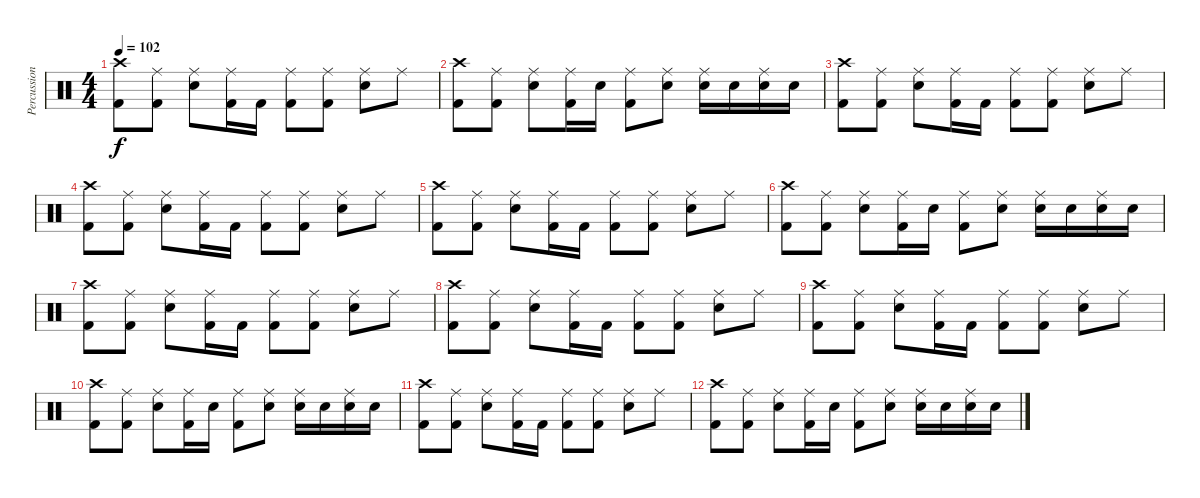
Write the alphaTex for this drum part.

\track ("Percussion" "Percussion") {instrument percussion}
\staff {score}
\articulation defaults
\ts (4 4)
\tempo 102
\clef neutral
\ks c
("Crash high (hit)" "Kick (hit) 2").8{dy f} ("Ride (middle)" "Kick (hit) 2").8 ("Ride (middle)" "Snare (hit) 2").8 ("Ride (middle)" "Kick (hit) 2").16 "Kick (hit) 2".16 ("Ride (middle)" "Kick (hit) 2").8 ("Ride (middle)" "Kick (hit) 2").8 ("Ride (middle)" "Snare (hit) 2").8 "Ride (middle)".8 |
("Crash high (hit)" "Kick (hit) 2").8 ("Ride (middle)" "Kick (hit) 2").8 ("Ride (middle)" "Snare (hit) 2").8 ("Ride (middle)" "Kick (hit) 2").16 "Snare (hit) 2".16 ("Ride (middle)" "Kick (hit) 2").8 ("Ride (middle)" "Snare (hit) 2").8 ("Ride (middle)" "Snare (hit) 2").16 "Snare (hit) 2".16 ("Ride (middle)" "Snare (hit) 2").16 "Snare (hit) 2".16 |
("Crash high (hit)" "Kick (hit) 2").8 ("Ride (middle)" "Kick (hit) 2").8 ("Ride (middle)" "Snare (hit) 2").8 ("Ride (middle)" "Kick (hit) 2").16 "Kick (hit) 2".16 ("Ride (middle)" "Kick (hit) 2").8 ("Ride (middle)" "Kick (hit) 2").8 ("Ride (middle)" "Snare (hit) 2").8 "Ride (middle)".8 |
("Crash high (hit)" "Kick (hit) 2").8 ("Ride (middle)" "Kick (hit) 2").8 ("Ride (middle)" "Snare (hit) 2").8 ("Ride (middle)" "Kick (hit) 2").16 "Kick (hit) 2".16 ("Ride (middle)" "Kick (hit) 2").8 ("Ride (middle)" "Kick (hit) 2").8 ("Ride (middle)" "Snare (hit) 2").8 "Ride (middle)".8 |
("Crash high (hit)" "Kick (hit) 2").8 ("Ride (middle)" "Kick (hit) 2").8 ("Ride (middle)" "Snare (hit) 2").8 ("Ride (middle)" "Kick (hit) 2").16 "Kick (hit) 2".16 ("Ride (middle)" "Kick (hit) 2").8 ("Ride (middle)" "Kick (hit) 2").8 ("Ride (middle)" "Snare (hit) 2").8 "Ride (middle)".8 |
("Crash high (hit)" "Kick (hit) 2").8 ("Ride (middle)" "Kick (hit) 2").8 ("Ride (middle)" "Snare (hit) 2").8 ("Ride (middle)" "Kick (hit) 2").16 "Snare (hit) 2".16 ("Ride (middle)" "Kick (hit) 2").8 ("Ride (middle)" "Snare (hit) 2").8 ("Ride (middle)" "Snare (hit) 2").16 "Snare (hit) 2".16 ("Ride (middle)" "Snare (hit) 2").16 "Snare (hit) 2".16 |
("Crash high (hit)" "Kick (hit) 2").8 ("Ride (middle)" "Kick (hit) 2").8 ("Ride (middle)" "Snare (hit) 2").8 ("Ride (middle)" "Kick (hit) 2").16 "Kick (hit) 2".16 ("Ride (middle)" "Kick (hit) 2").8 ("Ride (middle)" "Kick (hit) 2").8 ("Ride (middle)" "Snare (hit) 2").8 "Ride (middle)".8 |
("Crash high (hit)" "Kick (hit) 2").8 ("Ride (middle)" "Kick (hit) 2").8 ("Ride (middle)" "Snare (hit) 2").8 ("Ride (middle)" "Kick (hit) 2").16 "Kick (hit) 2".16 ("Ride (middle)" "Kick (hit) 2").8 ("Ride (middle)" "Kick (hit) 2").8 ("Ride (middle)" "Snare (hit) 2").8 "Ride (middle)".8 |
("Crash high (hit)" "Kick (hit) 2").8 ("Ride (middle)" "Kick (hit) 2").8 ("Ride (middle)" "Snare (hit) 2").8 ("Ride (middle)" "Kick (hit) 2").16 "Kick (hit) 2".16 ("Ride (middle)" "Kick (hit) 2").8 ("Ride (middle)" "Kick (hit) 2").8 ("Ride (middle)" "Snare (hit) 2").8 "Ride (middle)".8 |
("Crash high (hit)" "Kick (hit) 2").8 ("Ride (middle)" "Kick (hit) 2").8 ("Ride (middle)" "Snare (hit) 2").8 ("Ride (middle)" "Kick (hit) 2").16 "Snare (hit) 2".16 ("Ride (middle)" "Kick (hit) 2").8 ("Ride (middle)" "Snare (hit) 2").8 ("Ride (middle)" "Snare (hit) 2").16 "Snare (hit) 2".16 ("Ride (middle)" "Snare (hit) 2").16 "Snare (hit) 2".16 |
("Crash high (hit)" "Kick (hit) 2").8 ("Ride (middle)" "Kick (hit) 2").8 ("Ride (middle)" "Snare (hit) 2").8 ("Ride (middle)" "Kick (hit) 2").16 "Kick (hit) 2".16 ("Ride (middle)" "Kick (hit) 2").8 ("Ride (middle)" "Kick (hit) 2").8 ("Ride (middle)" "Snare (hit) 2").8 "Ride (middle)".8 |
("Crash high (hit)" "Kick (hit) 2").8 ("Ride (middle)" "Kick (hit) 2").8 ("Ride (middle)" "Snare (hit) 2").8 ("Ride (middle)" "Kick (hit) 2").16 "Snare (hit) 2".16 ("Ride (middle)" "Kick (hit) 2").8 ("Ride (middle)" "Snare (hit) 2").8 ("Ride (middle)" "Snare (hit) 2").16 "Snare (hit) 2".16 ("Ride (middle)" "Snare (hit) 2").16 "Snare (hit) 2".16
